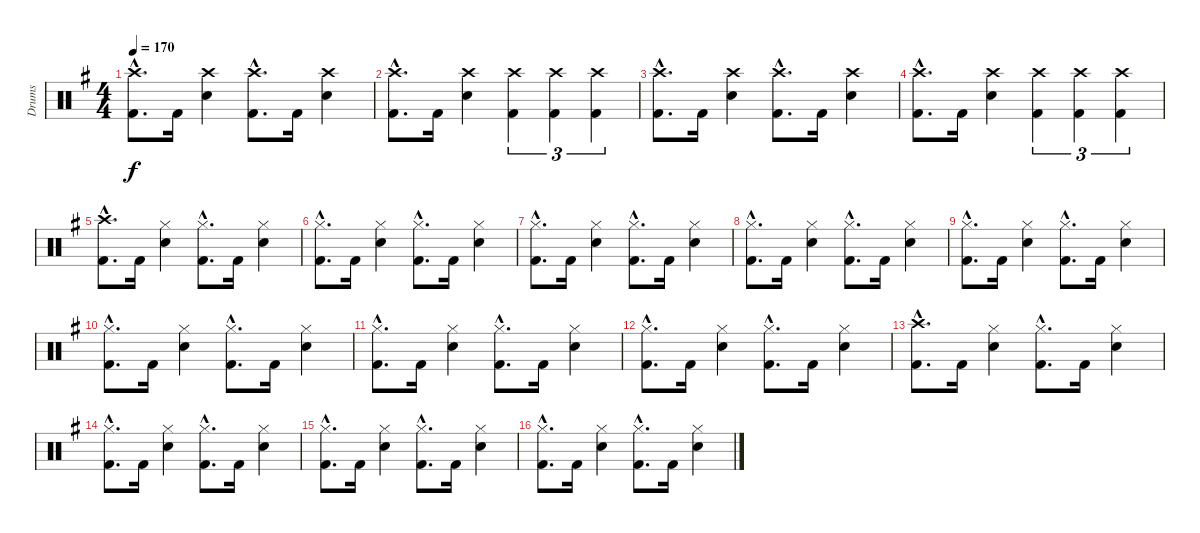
\track ("Drums" "Drums") {instrument percussion}
\staff {score}
\articulation defaults
\ts (4 4)
\tempo 170
\clef neutral
\ks eminor
("Crash high (hit)"{hac} "Kick (hit) 2"{hac}).8{d dy f} "Kick (hit) 2".16 ("Crash high (hit)" "Snare (hit) 2").4 ("Crash high (hit)"{hac} "Kick (hit) 2"{hac}).8{d} "Kick (hit) 2".16 ("Crash high (hit)" "Snare (hit) 2").4 |
("Crash high (hit)"{hac} "Kick (hit) 2"{hac}).8{d} "Kick (hit) 2".16 ("Crash high (hit)" "Snare (hit) 2").4 ("Crash high (hit)" "Kick (hit) 2").4{tu (3 2)} ("Crash high (hit)" "Kick (hit) 2").4{tu (3 2)} ("Crash high (hit)" "Kick (hit) 2").4{tu (3 2)} |
("Crash high (hit)"{hac} "Kick (hit) 2"{hac}).8{d} "Kick (hit) 2".16 ("Crash high (hit)" "Snare (hit) 2").4 ("Crash high (hit)"{hac} "Kick (hit) 2"{hac}).8{d} "Kick (hit) 2".16 ("Crash high (hit)" "Snare (hit) 2").4 |
("Crash high (hit)"{hac} "Kick (hit) 2"{hac}).8{d} "Kick (hit) 2".16 ("Crash high (hit)" "Snare (hit) 2").4 ("Crash high (hit)" "Kick (hit) 2").4{tu (3 2)} ("Crash high (hit)" "Kick (hit) 2").4{tu (3 2)} ("Crash high (hit)" "Kick (hit) 2").4{tu (3 2)} |
("Crash high (hit)"{hac} "Kick (hit) 2"{hac}).8{d} "Kick (hit) 2".16 ("Hi-Hat (closed)" "Snare (hit) 2").4 ("Hi-Hat (closed)"{hac} "Kick (hit) 2"{hac}).8{d} "Kick (hit) 2".16 ("Hi-Hat (closed)" "Snare (hit) 2").4 |
("Hi-Hat (closed)"{hac} "Kick (hit) 2"{hac}).8{d} "Kick (hit) 2".16 ("Hi-Hat (closed)" "Snare (hit) 2").4 ("Hi-Hat (closed)"{hac} "Kick (hit) 2"{hac}).8{d} "Kick (hit) 2".16 ("Hi-Hat (closed)" "Snare (hit) 2").4 |
("Hi-Hat (closed)"{hac} "Kick (hit) 2"{hac}).8{d} "Kick (hit) 2".16 ("Hi-Hat (closed)" "Snare (hit) 2").4 ("Hi-Hat (closed)"{hac} "Kick (hit) 2"{hac}).8{d} "Kick (hit) 2".16 ("Hi-Hat (closed)" "Snare (hit) 2").4 |
("Hi-Hat (closed)"{hac} "Kick (hit) 2"{hac}).8{d} "Kick (hit) 2".16 ("Hi-Hat (closed)" "Snare (hit) 2").4 ("Hi-Hat (closed)"{hac} "Kick (hit) 2"{hac}).8{d} "Kick (hit) 2".16 ("Hi-Hat (closed)" "Snare (hit) 2").4 |
("Hi-Hat (closed)"{hac} "Kick (hit) 2"{hac}).8{d} "Kick (hit) 2".16 ("Hi-Hat (closed)" "Snare (hit) 2").4 ("Hi-Hat (closed)"{hac} "Kick (hit) 2"{hac}).8{d} "Kick (hit) 2".16 ("Hi-Hat (closed)" "Snare (hit) 2").4 |
("Hi-Hat (closed)"{hac} "Kick (hit) 2"{hac}).8{d} "Kick (hit) 2".16 ("Hi-Hat (closed)" "Snare (hit) 2").4 ("Hi-Hat (closed)"{hac} "Kick (hit) 2"{hac}).8{d} "Kick (hit) 2".16 ("Hi-Hat (closed)" "Snare (hit) 2").4 |
("Hi-Hat (closed)"{hac} "Kick (hit) 2"{hac}).8{d} "Kick (hit) 2".16 ("Hi-Hat (closed)" "Snare (hit) 2").4 ("Hi-Hat (closed)"{hac} "Kick (hit) 2"{hac}).8{d} "Kick (hit) 2".16 ("Hi-Hat (closed)" "Snare (hit) 2").4 |
("Hi-Hat (closed)"{hac} "Kick (hit) 2"{hac}).8{d} "Kick (hit) 2".16 ("Hi-Hat (closed)" "Snare (hit) 2").4 ("Hi-Hat (closed)"{hac} "Kick (hit) 2"{hac}).8{d} "Kick (hit) 2".16 ("Hi-Hat (closed)" "Snare (hit) 2").4 |
("Crash high (hit)"{hac} "Kick (hit) 2"{hac}).8{d} "Kick (hit) 2".16 ("Hi-Hat (closed)" "Snare (hit) 2").4 ("Hi-Hat (closed)"{hac} "Kick (hit) 2"{hac}).8{d} "Kick (hit) 2".16 ("Hi-Hat (closed)" "Snare (hit) 2").4 |
("Hi-Hat (closed)"{hac} "Kick (hit) 2"{hac}).8{d} "Kick (hit) 2".16 ("Hi-Hat (closed)" "Snare (hit) 2").4 ("Hi-Hat (closed)"{hac} "Kick (hit) 2"{hac}).8{d} "Kick (hit) 2".16 ("Hi-Hat (closed)" "Snare (hit) 2").4 |
("Hi-Hat (closed)"{hac} "Kick (hit) 2"{hac}).8{d} "Kick (hit) 2".16 ("Hi-Hat (closed)" "Snare (hit) 2").4 ("Hi-Hat (closed)"{hac} "Kick (hit) 2"{hac}).8{d} "Kick (hit) 2".16 ("Hi-Hat (closed)" "Snare (hit) 2").4 |
("Hi-Hat (closed)"{hac} "Kick (hit) 2"{hac}).8{d} "Kick (hit) 2".16 ("Hi-Hat (closed)" "Snare (hit) 2").4 ("Hi-Hat (closed)"{hac} "Kick (hit) 2"{hac}).8{d} "Kick (hit) 2".16 ("Hi-Hat (closed)" "Snare (hit) 2").4
